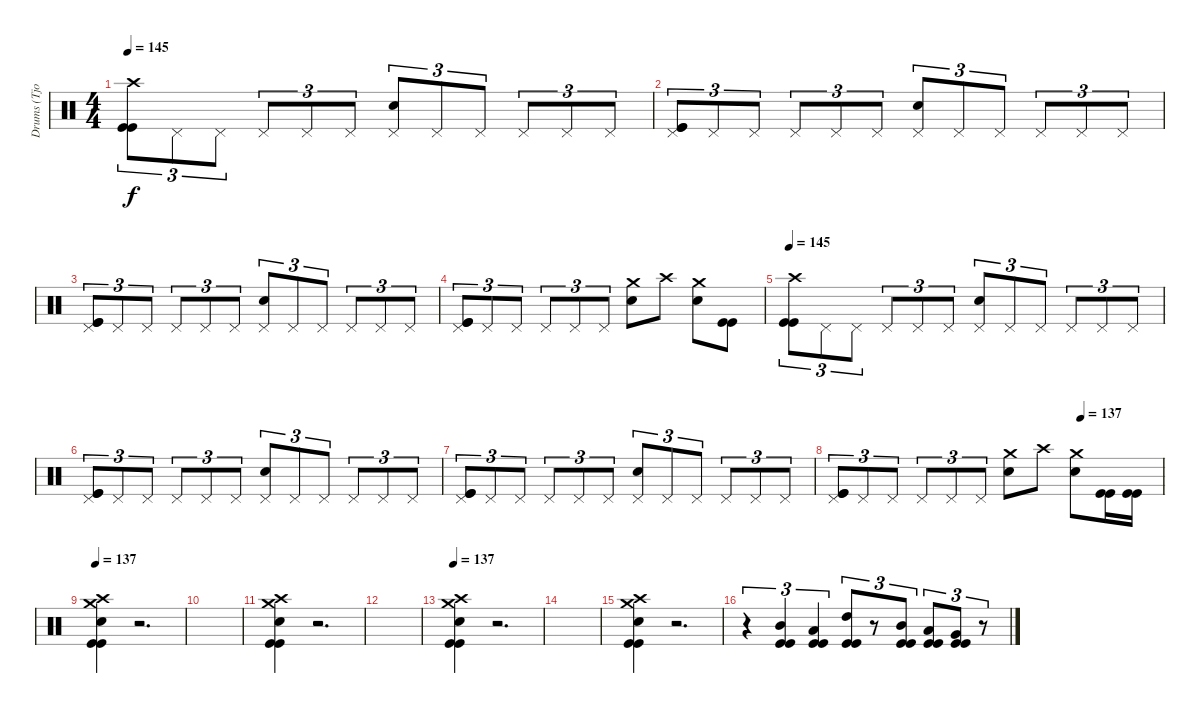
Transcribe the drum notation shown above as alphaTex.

\track ("Drums (Tjodalv)" "Drums (Tjo") {instrument percussion}
\staff {score}
\articulation defaults
\ts (4 4)
\tempo 145
\clef neutral
\ks c
("Crash high (hit)" "Kick (hit)" "Kick (hit)").8{tu (3 2) dy f} "Pedal Hi-Hat (hit)".8{tu (3 2)} "Pedal Hi-Hat (hit)".8{tu (3 2)} "Pedal Hi-Hat (hit)".8{tu (3 2)} "Pedal Hi-Hat (hit)".8{tu (3 2)} "Pedal Hi-Hat (hit)".8{tu (3 2)} ("Snare (hit) 2" "Pedal Hi-Hat (hit)").8{tu (3 2)} "Pedal Hi-Hat (hit)".8{tu (3 2)} "Pedal Hi-Hat (hit)".8{tu (3 2)} "Pedal Hi-Hat (hit)".8{tu (3 2)} "Pedal Hi-Hat (hit)".8{tu (3 2)} "Pedal Hi-Hat (hit)".8{tu (3 2)} |
("Pedal Hi-Hat (hit)" "Kick (hit)" "Kick (hit)").8{tu (3 2)} "Pedal Hi-Hat (hit)".8{tu (3 2)} "Pedal Hi-Hat (hit)".8{tu (3 2)} "Pedal Hi-Hat (hit)".8{tu (3 2)} "Pedal Hi-Hat (hit)".8{tu (3 2)} "Pedal Hi-Hat (hit)".8{tu (3 2)} ("Snare (hit) 2" "Pedal Hi-Hat (hit)").8{tu (3 2)} "Pedal Hi-Hat (hit)".8{tu (3 2)} "Pedal Hi-Hat (hit)".8{tu (3 2)} "Pedal Hi-Hat (hit)".8{tu (3 2)} "Pedal Hi-Hat (hit)".8{tu (3 2)} "Pedal Hi-Hat (hit)".8{tu (3 2)} |
("Pedal Hi-Hat (hit)" "Kick (hit)" "Kick (hit)").8{tu (3 2)} "Pedal Hi-Hat (hit)".8{tu (3 2)} "Pedal Hi-Hat (hit)".8{tu (3 2)} "Pedal Hi-Hat (hit)".8{tu (3 2)} "Pedal Hi-Hat (hit)".8{tu (3 2)} "Pedal Hi-Hat (hit)".8{tu (3 2)} ("Snare (hit) 2" "Pedal Hi-Hat (hit)").8{tu (3 2)} "Pedal Hi-Hat (hit)".8{tu (3 2)} "Pedal Hi-Hat (hit)".8{tu (3 2)} "Pedal Hi-Hat (hit)".8{tu (3 2)} "Pedal Hi-Hat (hit)".8{tu (3 2)} "Pedal Hi-Hat (hit)".8{tu (3 2)} |
("Pedal Hi-Hat (hit)" "Kick (hit)" "Kick (hit)").8{tu (3 2)} "Pedal Hi-Hat (hit)".8{tu (3 2)} "Pedal Hi-Hat (hit)".8{tu (3 2)} "Pedal Hi-Hat (hit)".8{tu (3 2)} "Pedal Hi-Hat (hit)".8{tu (3 2)} "Pedal Hi-Hat (hit)".8{tu (3 2)} ("Snare (hit) 2" "Crash medium (hit)").8 "Crash high (hit)".8 ("Snare (hit) 2" "Crash medium (hit)").8 ("Kick (hit)" "Kick (hit)").8 |
\tempo 145
("Crash high (hit)" "Kick (hit)" "Kick (hit)").8{tu (3 2)} "Pedal Hi-Hat (hit)".8{tu (3 2)} "Pedal Hi-Hat (hit)".8{tu (3 2)} "Pedal Hi-Hat (hit)".8{tu (3 2)} "Pedal Hi-Hat (hit)".8{tu (3 2)} "Pedal Hi-Hat (hit)".8{tu (3 2)} ("Snare (hit) 2" "Pedal Hi-Hat (hit)").8{tu (3 2)} "Pedal Hi-Hat (hit)".8{tu (3 2)} "Pedal Hi-Hat (hit)".8{tu (3 2)} "Pedal Hi-Hat (hit)".8{tu (3 2)} "Pedal Hi-Hat (hit)".8{tu (3 2)} "Pedal Hi-Hat (hit)".8{tu (3 2)} |
("Pedal Hi-Hat (hit)" "Kick (hit)" "Kick (hit)").8{tu (3 2)} "Pedal Hi-Hat (hit)".8{tu (3 2)} "Pedal Hi-Hat (hit)".8{tu (3 2)} "Pedal Hi-Hat (hit)".8{tu (3 2)} "Pedal Hi-Hat (hit)".8{tu (3 2)} "Pedal Hi-Hat (hit)".8{tu (3 2)} ("Snare (hit) 2" "Pedal Hi-Hat (hit)").8{tu (3 2)} "Pedal Hi-Hat (hit)".8{tu (3 2)} "Pedal Hi-Hat (hit)".8{tu (3 2)} "Pedal Hi-Hat (hit)".8{tu (3 2)} "Pedal Hi-Hat (hit)".8{tu (3 2)} "Pedal Hi-Hat (hit)".8{tu (3 2)} |
("Pedal Hi-Hat (hit)" "Kick (hit)" "Kick (hit)").8{tu (3 2)} "Pedal Hi-Hat (hit)".8{tu (3 2)} "Pedal Hi-Hat (hit)".8{tu (3 2)} "Pedal Hi-Hat (hit)".8{tu (3 2)} "Pedal Hi-Hat (hit)".8{tu (3 2)} "Pedal Hi-Hat (hit)".8{tu (3 2)} ("Snare (hit) 2" "Pedal Hi-Hat (hit)").8{tu (3 2)} "Pedal Hi-Hat (hit)".8{tu (3 2)} "Pedal Hi-Hat (hit)".8{tu (3 2)} "Pedal Hi-Hat (hit)".8{tu (3 2)} "Pedal Hi-Hat (hit)".8{tu (3 2)} "Pedal Hi-Hat (hit)".8{tu (3 2)} |
\tempo (137 0.75)
("Pedal Hi-Hat (hit)" "Kick (hit)" "Kick (hit)").8{tu (3 2)} "Pedal Hi-Hat (hit)".8{tu (3 2)} "Pedal Hi-Hat (hit)".8{tu (3 2)} "Pedal Hi-Hat (hit)".8{tu (3 2)} "Pedal Hi-Hat (hit)".8{tu (3 2)} "Pedal Hi-Hat (hit)".8{tu (3 2)} ("Snare (hit) 2" "Crash medium (hit)").8 "Crash high (hit)".8 ("Snare (hit) 2" "Crash medium (hit)").8 ("Kick (hit)" "Kick (hit)").16 ("Kick (hit)" "Kick (hit)").16 |
\tempo 137
("Crash medium (hit)" "Snare (hit) 2" "Crash high (hit)" "Kick (hit)" "Kick (hit)").4 r.2{d} |
|
("Crash medium (hit)" "Snare (hit) 2" "Crash high (hit)" "Kick (hit)" "Kick (hit)").4 r.2{d} |
|
\tempo 137
("Crash medium (hit)" "Snare (hit) 2" "Crash high (hit)" "Kick (hit)" "Kick (hit)").4 r.2{d} |
|
("Crash medium (hit)" "Snare (hit) 2" "Crash high (hit)" "Kick (hit)" "Kick (hit)").4 r.2{d} |
r.4{tu (3 2)} ("Mid Tom (hit)" "Kick (hit)" "Kick (hit)").4{tu (3 2)} ("Low Tom (hit)" "Kick (hit)" "Kick (hit)").4{tu (3 2)} ("High Tom (hit)" "Kick (hit)" "Kick (hit)").8{tu (3 2)} r.8{tu (3 2)} ("Mid Tom (hit)" "Kick (hit)" "Kick (hit)").8{tu (3 2)} ("Low Tom (hit)" "Kick (hit)" "Kick (hit)").8{tu (3 2)} ("Very Low Tom (hit)" "Kick (hit)" "Kick (hit)").8{tu (3 2)} r.8{tu (3 2)}
